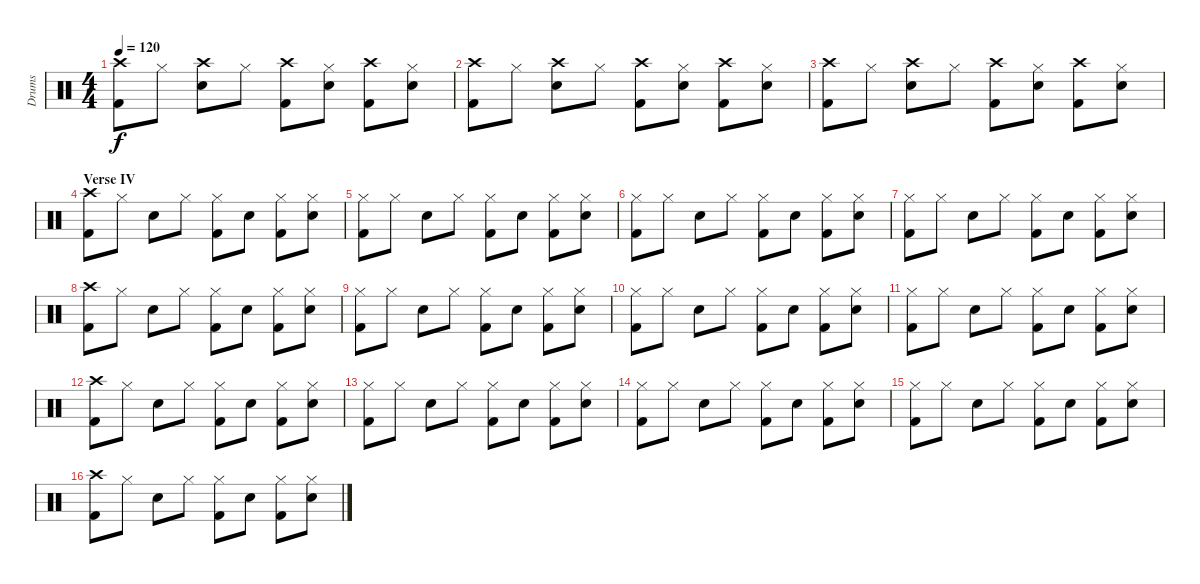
\track ("Drums" "Drums") {instrument percussion}
\staff {score}
\articulation defaults
\ts (4 4)
\tempo 120
\clef neutral
\ks c
("Kick (hit) 2" "Crash high (hit)").8{dy f} "Hi-Hat (closed)".8 ("Snare (hit) 2" "Crash high (hit)").8 "Hi-Hat (closed)".8 ("Kick (hit) 2" "Crash high (hit)").8 ("Snare (hit) 2" "Hi-Hat (closed)").8 ("Kick (hit) 2" "Crash high (hit)").8 ("Snare (hit) 2" "Hi-Hat (closed)").8 |
("Kick (hit) 2" "Crash high (hit)").8 "Hi-Hat (closed)".8 ("Snare (hit) 2" "Crash high (hit)").8 "Hi-Hat (closed)".8 ("Kick (hit) 2" "Crash high (hit)").8 ("Snare (hit) 2" "Hi-Hat (closed)").8 ("Kick (hit) 2" "Crash high (hit)").8 ("Snare (hit) 2" "Hi-Hat (closed)").8 |
("Kick (hit) 2" "Crash high (hit)").8 "Hi-Hat (closed)".8 ("Snare (hit) 2" "Crash high (hit)").8 "Hi-Hat (closed)".8 ("Kick (hit) 2" "Crash high (hit)").8 ("Snare (hit) 2" "Hi-Hat (closed)").8 ("Kick (hit) 2" "Crash high (hit)").8 ("Snare (hit) 2" "Hi-Hat (closed)").8 |
\section ("" "Verse IV")
("Kick (hit) 2" "Crash high (hit)").8 "Hi-Hat (closed)".8 "Snare (hit) 2".8 "Hi-Hat (closed)".8 ("Kick (hit) 2" "Hi-Hat (closed)").8 "Snare (hit) 2".8 ("Kick (hit) 2" "Hi-Hat (closed)").8 ("Snare (hit) 2" "Hi-Hat (closed)").8 |
("Kick (hit) 2" "Hi-Hat (closed)").8 "Hi-Hat (closed)".8 "Snare (hit) 2".8 "Hi-Hat (closed)".8 ("Kick (hit) 2" "Hi-Hat (closed)").8 "Snare (hit) 2".8 ("Kick (hit) 2" "Hi-Hat (closed)").8 ("Snare (hit) 2" "Hi-Hat (closed)").8 |
("Kick (hit) 2" "Hi-Hat (closed)").8 "Hi-Hat (closed)".8 "Snare (hit) 2".8 "Hi-Hat (closed)".8 ("Kick (hit) 2" "Hi-Hat (closed)").8 "Snare (hit) 2".8 ("Kick (hit) 2" "Hi-Hat (closed)").8 ("Snare (hit) 2" "Hi-Hat (closed)").8 |
("Kick (hit) 2" "Hi-Hat (closed)").8 "Hi-Hat (closed)".8 "Snare (hit) 2".8 "Hi-Hat (closed)".8 ("Kick (hit) 2" "Hi-Hat (closed)").8 "Snare (hit) 2".8 ("Kick (hit) 2" "Hi-Hat (closed)").8 ("Snare (hit) 2" "Hi-Hat (closed)").8 |
("Kick (hit) 2" "Crash high (hit)").8 "Hi-Hat (closed)".8 "Snare (hit) 2".8 "Hi-Hat (closed)".8 ("Kick (hit) 2" "Hi-Hat (closed)").8 "Snare (hit) 2".8 ("Kick (hit) 2" "Hi-Hat (closed)").8 ("Snare (hit) 2" "Hi-Hat (closed)").8 |
("Kick (hit) 2" "Hi-Hat (closed)").8 "Hi-Hat (closed)".8 "Snare (hit) 2".8 "Hi-Hat (closed)".8 ("Kick (hit) 2" "Hi-Hat (closed)").8 "Snare (hit) 2".8 ("Kick (hit) 2" "Hi-Hat (closed)").8 ("Snare (hit) 2" "Hi-Hat (closed)").8 |
("Kick (hit) 2" "Hi-Hat (closed)").8 "Hi-Hat (closed)".8 "Snare (hit) 2".8 "Hi-Hat (closed)".8 ("Kick (hit) 2" "Hi-Hat (closed)").8 "Snare (hit) 2".8 ("Kick (hit) 2" "Hi-Hat (closed)").8 ("Snare (hit) 2" "Hi-Hat (closed)").8 |
("Kick (hit) 2" "Hi-Hat (closed)").8 "Hi-Hat (closed)".8 "Snare (hit) 2".8 "Hi-Hat (closed)".8 ("Kick (hit) 2" "Hi-Hat (closed)").8 "Snare (hit) 2".8 ("Kick (hit) 2" "Hi-Hat (closed)").8 ("Snare (hit) 2" "Hi-Hat (closed)").8 |
("Kick (hit) 2" "Crash high (hit)").8 "Hi-Hat (closed)".8 "Snare (hit) 2".8 "Hi-Hat (closed)".8 ("Kick (hit) 2" "Hi-Hat (closed)").8 "Snare (hit) 2".8 ("Kick (hit) 2" "Hi-Hat (closed)").8 ("Snare (hit) 2" "Hi-Hat (closed)").8 |
("Kick (hit) 2" "Hi-Hat (closed)").8 "Hi-Hat (closed)".8 "Snare (hit) 2".8 "Hi-Hat (closed)".8 ("Kick (hit) 2" "Hi-Hat (closed)").8 "Snare (hit) 2".8 ("Kick (hit) 2" "Hi-Hat (closed)").8 ("Snare (hit) 2" "Hi-Hat (closed)").8 |
("Kick (hit) 2" "Hi-Hat (closed)").8 "Hi-Hat (closed)".8 "Snare (hit) 2".8 "Hi-Hat (closed)".8 ("Kick (hit) 2" "Hi-Hat (closed)").8 "Snare (hit) 2".8 ("Kick (hit) 2" "Hi-Hat (closed)").8 ("Snare (hit) 2" "Hi-Hat (closed)").8 |
("Kick (hit) 2" "Hi-Hat (closed)").8 "Hi-Hat (closed)".8 "Snare (hit) 2".8 "Hi-Hat (closed)".8 ("Kick (hit) 2" "Hi-Hat (closed)").8 "Snare (hit) 2".8 ("Kick (hit) 2" "Hi-Hat (closed)").8 ("Snare (hit) 2" "Hi-Hat (closed)").8 |
("Kick (hit) 2" "Crash high (hit)").8 "Hi-Hat (closed)".8 "Snare (hit) 2".8 "Hi-Hat (closed)".8 ("Kick (hit) 2" "Hi-Hat (closed)").8 "Snare (hit) 2".8 ("Kick (hit) 2" "Hi-Hat (closed)").8 ("Snare (hit) 2" "Hi-Hat (closed)").8
